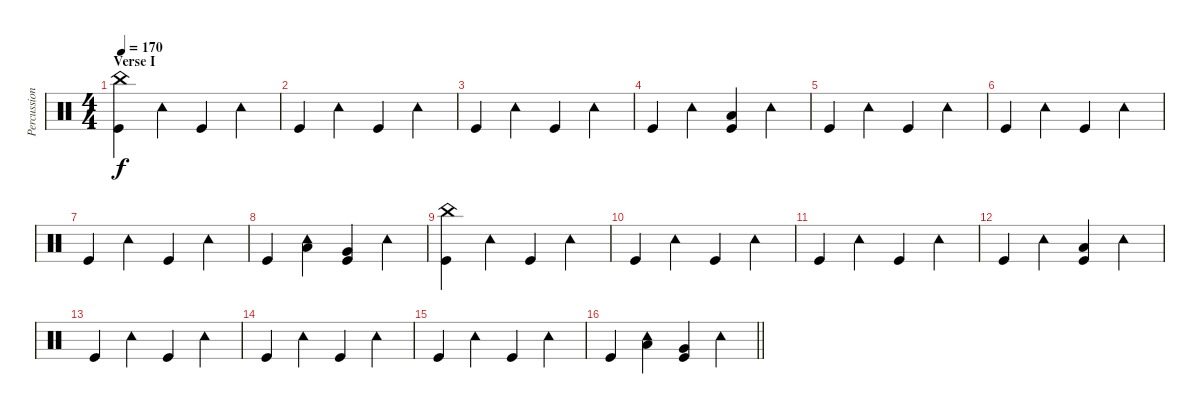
\track ("Percussion" "Percussion") {instrument percussion}
\staff {score}
\articulation defaults
\ts (4 4)
\section ("" "Verse I")
\tempo 170
\clef neutral
\ks c
("China (hit)" "Kick (hit)").4{dy f} "Tambourine (hit)".4 "Kick (hit)".4 "Tambourine (hit)".4 |
"Kick (hit)".4 "Tambourine (hit)".4 "Kick (hit)".4 "Tambourine (hit)".4 |
"Kick (hit)".4 "Tambourine (hit)".4 "Kick (hit)".4 "Tambourine (hit)".4 |
"Kick (hit)".4 "Tambourine (hit)".4 ("Low Tom (hit)" "Kick (hit)").4 "Tambourine (hit)".4 |
"Kick (hit)".4 "Tambourine (hit)".4 "Kick (hit)".4 "Tambourine (hit)".4 |
"Kick (hit)".4 "Tambourine (hit)".4 "Kick (hit)".4 "Tambourine (hit)".4 |
"Kick (hit)".4 "Tambourine (hit)".4 "Kick (hit)".4 "Tambourine (hit)".4 |
"Kick (hit)".4 ("Tambourine (hit)" "Low Tom (hit)").4 ("Very Low Tom (hit)" "Kick (hit)").4 "Tambourine (hit)".4 |
("China (hit)" "Kick (hit)").4 "Tambourine (hit)".4 "Kick (hit)".4 "Tambourine (hit)".4 |
"Kick (hit)".4 "Tambourine (hit)".4 "Kick (hit)".4 "Tambourine (hit)".4 |
"Kick (hit)".4 "Tambourine (hit)".4 "Kick (hit)".4 "Tambourine (hit)".4 |
"Kick (hit)".4 "Tambourine (hit)".4 ("Low Tom (hit)" "Kick (hit)").4 "Tambourine (hit)".4 |
"Kick (hit)".4 "Tambourine (hit)".4 "Kick (hit)".4 "Tambourine (hit)".4 |
"Kick (hit)".4 "Tambourine (hit)".4 "Kick (hit)".4 "Tambourine (hit)".4 |
"Kick (hit)".4 "Tambourine (hit)".4 "Kick (hit)".4 "Tambourine (hit)".4 |
\barLineRight lightlight "Kick (hit)".4
("Tambourine (hit)" "Low Tom (hit)").4 ("Very Low Tom (hit)" "Kick (hit)").4 "Tambourine (hit)".4
